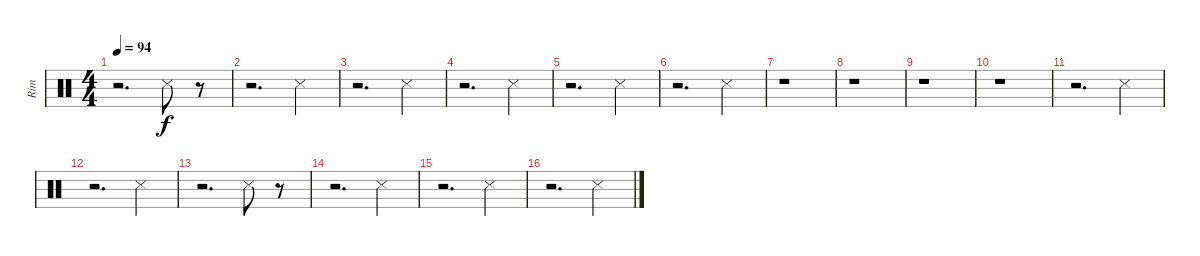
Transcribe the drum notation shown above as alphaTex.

\track ("Rim" "Rim") {instrument percussion}
\staff {score}
\articulation defaults
\ts (4 4)
\tempo 94
\clef neutral
\ks c
r.2{d dy f} "Snare (side stick) 3".8 r.8 |
r.2{d} "Snare (side stick) 3".4 |
r.2{d} "Snare (side stick) 3".4 |
r.2{d} "Snare (side stick) 3".4 |
r.2{d} "Snare (side stick) 3".4 |
r.2{d} "Snare (side stick) 3".4 |
r.1 |
r.1 |
r.1 |
r.1 |
r.2{d} "Snare (side stick) 3".4 |
r.2{d} "Snare (side stick) 3".4 |
r.2{d} "Snare (side stick) 3".8 r.8 |
r.2{d} "Snare (side stick) 3".4 |
r.2{d} "Snare (side stick) 3".4 |
r.2{d} "Snare (side stick) 3".4
